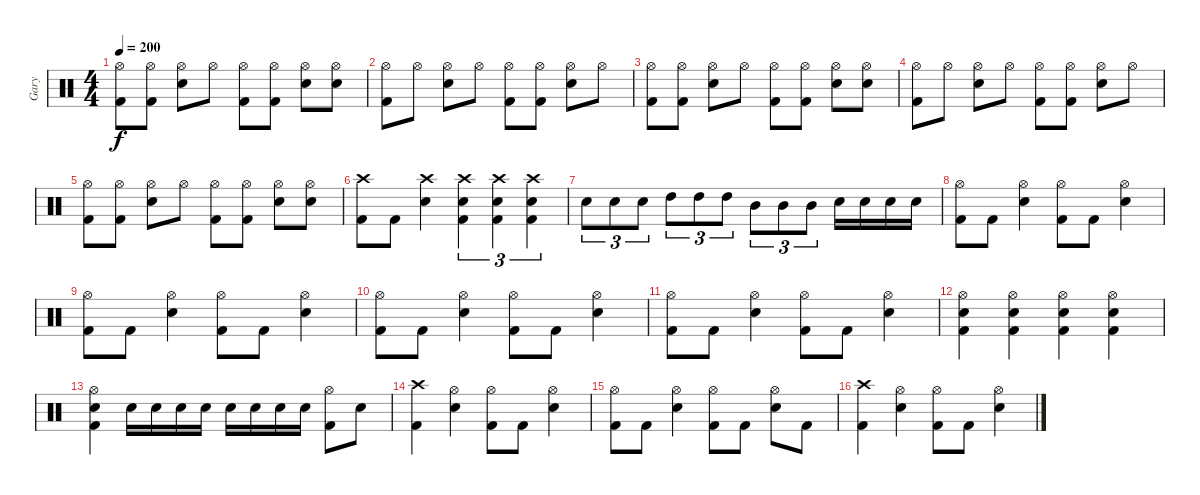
\track ("Gary" "Gary") {instrument percussion}
\staff {score}
\articulation defaults
\ts (4 4)
\tempo 200
\clef neutral
\ks c
("Hi-Hat (open)" "Kick (hit) 2").8{dy f} ("Hi-Hat (open)" "Kick (hit) 2").8 ("Hi-Hat (open)" "Electric Snare (hit)").8 "Hi-Hat (open)".8 ("Hi-Hat (open)" "Kick (hit) 2").8 ("Hi-Hat (open)" "Kick (hit) 2").8 ("Hi-Hat (open)" "Electric Snare (hit)").8 ("Hi-Hat (open)" "Electric Snare (hit)").8 |
("Hi-Hat (open)" "Kick (hit) 2").8 "Hi-Hat (open)".8 ("Hi-Hat (open)" "Electric Snare (hit)").8 "Hi-Hat (open)".8 ("Hi-Hat (open)" "Kick (hit) 2").8 ("Hi-Hat (open)" "Kick (hit) 2").8 ("Hi-Hat (open)" "Electric Snare (hit)").8 "Hi-Hat (open)".8 |
("Hi-Hat (open)" "Kick (hit) 2").8 ("Hi-Hat (open)" "Kick (hit) 2").8 ("Hi-Hat (open)" "Electric Snare (hit)").8 "Hi-Hat (open)".8 ("Hi-Hat (open)" "Kick (hit) 2").8 ("Hi-Hat (open)" "Kick (hit) 2").8 ("Hi-Hat (open)" "Electric Snare (hit)").8 ("Hi-Hat (open)" "Electric Snare (hit)").8 |
("Hi-Hat (open)" "Kick (hit) 2").8 "Hi-Hat (open)".8 ("Hi-Hat (open)" "Electric Snare (hit)").8 "Hi-Hat (open)".8 ("Hi-Hat (open)" "Kick (hit) 2").8 ("Hi-Hat (open)" "Kick (hit) 2").8 ("Hi-Hat (open)" "Electric Snare (hit)").8 "Hi-Hat (open)".8 |
("Hi-Hat (open)" "Kick (hit) 2").8 ("Hi-Hat (open)" "Kick (hit) 2").8 ("Hi-Hat (open)" "Electric Snare (hit)").8 "Hi-Hat (open)".8 ("Hi-Hat (open)" "Kick (hit) 2").8 ("Hi-Hat (open)" "Kick (hit) 2").8 ("Hi-Hat (open)" "Electric Snare (hit)").8 ("Hi-Hat (open)" "Electric Snare (hit)").8 |
("Crash high (hit)" "Kick (hit) 2").8 "Kick (hit) 2".8 ("Crash high (hit)" "Electric Snare (hit)").4 ("Crash high (hit)" "Electric Snare (hit)" "Kick (hit) 2").4{tu (3 2)} ("Crash high (hit)" "Electric Snare (hit)" "Kick (hit) 2").4{tu (3 2)} ("Crash high (hit)" "Electric Snare (hit)" "Kick (hit) 2").4{tu (3 2)} |
"Electric Snare (hit)".8{tu (3 2)} "Electric Snare (hit)".8{tu (3 2)} "Electric Snare (hit)".8{tu (3 2)} "High Tom (hit)".8{tu (3 2)} "High Tom (hit)".8{tu (3 2)} "High Tom (hit)".8{tu (3 2)} "Mid Tom (hit)".8{tu (3 2)} "Mid Tom (hit)".8{tu (3 2)} "Mid Tom (hit)".8{tu (3 2)} "Electric Snare (hit)".16 "Electric Snare (hit)".16 "Electric Snare (hit)".16 "Electric Snare (hit)".16 |
("Hi-Hat (open)" "Kick (hit) 2").8 "Kick (hit) 2".8 ("Hi-Hat (open)" "Electric Snare (hit)").4 ("Hi-Hat (open)" "Kick (hit) 2").8 "Kick (hit) 2".8 ("Hi-Hat (open)" "Electric Snare (hit)").4 |
("Hi-Hat (open)" "Kick (hit) 2").8 "Kick (hit) 2".8 ("Hi-Hat (open)" "Electric Snare (hit)").4 ("Hi-Hat (open)" "Kick (hit) 2").8 "Kick (hit) 2".8 ("Hi-Hat (open)" "Electric Snare (hit)").4 |
("Hi-Hat (open)" "Kick (hit) 2").8 "Kick (hit) 2".8 ("Hi-Hat (open)" "Electric Snare (hit)").4 ("Hi-Hat (open)" "Kick (hit) 2").8 "Kick (hit) 2".8 ("Hi-Hat (open)" "Electric Snare (hit)").4 |
("Hi-Hat (open)" "Kick (hit) 2").8 "Kick (hit) 2".8 ("Hi-Hat (open)" "Electric Snare (hit)").4 ("Hi-Hat (open)" "Kick (hit) 2").8 "Kick (hit) 2".8 ("Hi-Hat (open)" "Electric Snare (hit)").4 |
("Hi-Hat (open)" "Electric Snare (hit)" "Kick (hit) 2").4 ("Hi-Hat (open)" "Electric Snare (hit)" "Kick (hit) 2").4 ("Hi-Hat (open)" "Electric Snare (hit)" "Kick (hit) 2").4 ("Hi-Hat (open)" "Electric Snare (hit)" "Kick (hit) 2").4 |
("Hi-Hat (open)" "Electric Snare (hit)" "Kick (hit) 2").4 "Electric Snare (hit)".16 "Electric Snare (hit)".16 "Electric Snare (hit)".16 "Electric Snare (hit)".16 "Electric Snare (hit)".16 "Electric Snare (hit)".16 "Electric Snare (hit)".16 "Electric Snare (hit)".16 ("Hi-Hat (open)" "Kick (hit) 2").8 "Electric Snare (hit)".8 |
("Crash high (hit)" "Kick (hit) 2").4 ("Hi-Hat (open)" "Electric Snare (hit)").4 ("Hi-Hat (open)" "Kick (hit) 2").8 "Kick (hit) 2".8 ("Hi-Hat (open)" "Electric Snare (hit)").4 |
("Hi-Hat (open)" "Kick (hit) 2").8 "Kick (hit) 2".8 ("Hi-Hat (open)" "Electric Snare (hit)").4 ("Hi-Hat (open)" "Kick (hit) 2").8 "Kick (hit) 2".8 ("Hi-Hat (open)" "Electric Snare (hit)").8 "Kick (hit) 2".8 |
("Crash high (hit)" "Kick (hit) 2").4 ("Hi-Hat (open)" "Electric Snare (hit)").4 ("Hi-Hat (open)" "Kick (hit) 2").8 "Kick (hit) 2".8 ("Hi-Hat (open)" "Electric Snare (hit)").4
